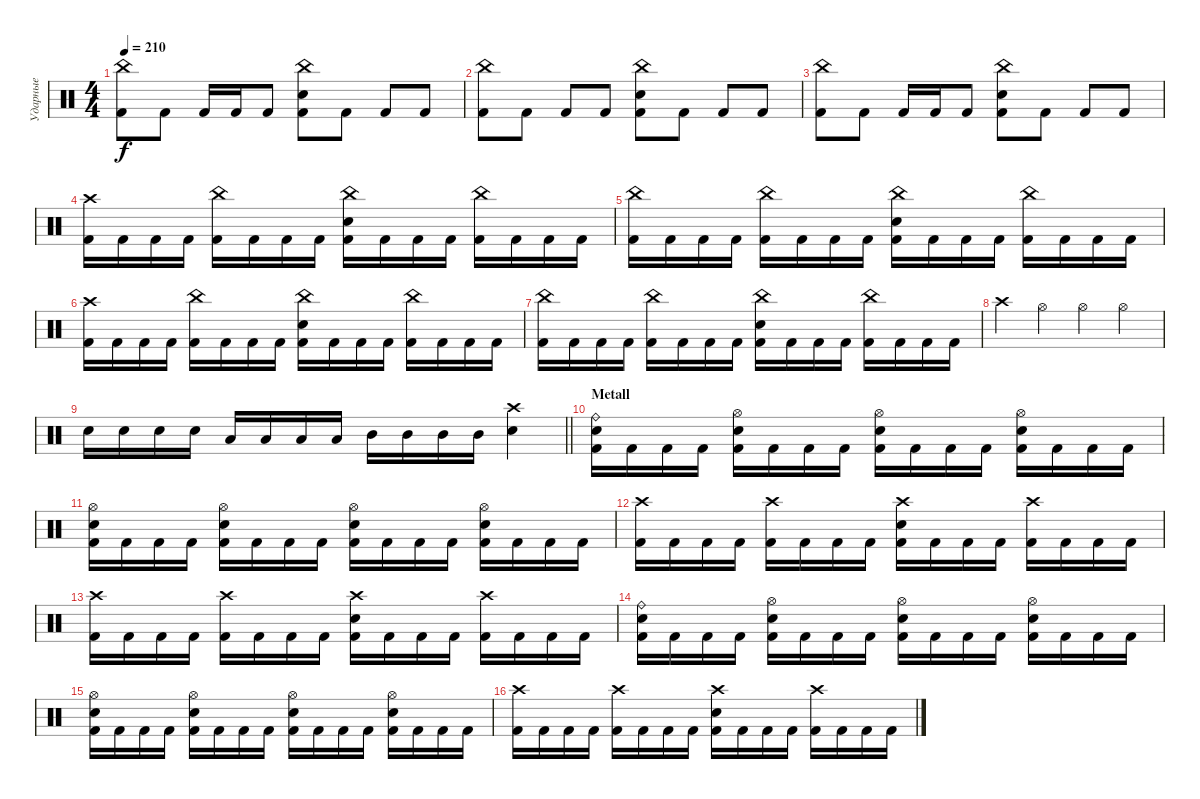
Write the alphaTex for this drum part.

\track ("Ударные" "Ударные") {instrument percussion}
\staff {score}
\articulation defaults
\ts (4 4)
\tempo 210
\clef neutral
\ks c
("China (hit)" "Kick (hit) 2").8{dy f} "Kick (hit) 2".8 "Kick (hit) 2".16 "Kick (hit) 2".16 "Kick (hit) 2".8 ("China (hit)" "Snare (hit) 2" "Kick (hit) 2").8 "Kick (hit) 2".8 "Kick (hit) 2".8 "Kick (hit) 2".8 |
("China (hit)" "Kick (hit) 2").8 "Kick (hit) 2".8 "Kick (hit) 2".8 "Kick (hit) 2".8 ("China (hit)" "Snare (hit) 2" "Kick (hit) 2").8 "Kick (hit) 2".8 "Kick (hit) 2".8 "Kick (hit) 2".8 |
("China (hit)" "Kick (hit) 2").8 "Kick (hit) 2".8 "Kick (hit) 2".16 "Kick (hit) 2".16 "Kick (hit) 2".8 ("China (hit)" "Snare (hit) 2" "Kick (hit) 2").8 "Kick (hit) 2".8 "Kick (hit) 2".8 "Kick (hit) 2".8 |
("Crash high (hit)" "Kick (hit) 2").16 "Kick (hit) 2".16 "Kick (hit) 2".16 "Kick (hit) 2".16 ("China (hit)" "Kick (hit) 2").16 "Kick (hit) 2".16 "Kick (hit) 2".16 "Kick (hit) 2".16 ("China (hit)" "Snare (hit) 2" "Kick (hit) 2").16 "Kick (hit) 2".16 "Kick (hit) 2".16 "Kick (hit) 2".16 ("China (hit)" "Kick (hit) 2").16 "Kick (hit) 2".16 "Kick (hit) 2".16 "Kick (hit) 2".16 |
("China (hit)" "Kick (hit) 2").16 "Kick (hit) 2".16 "Kick (hit) 2".16 "Kick (hit) 2".16 ("China (hit)" "Kick (hit) 2").16 "Kick (hit) 2".16 "Kick (hit) 2".16 "Kick (hit) 2".16 ("China (hit)" "Snare (hit) 2" "Kick (hit) 2").16 "Kick (hit) 2".16 "Kick (hit) 2".16 "Kick (hit) 2".16 ("China (hit)" "Kick (hit) 2").16 "Kick (hit) 2".16 "Kick (hit) 2".16 "Kick (hit) 2".16 |
("Crash high (hit)" "Kick (hit) 2").16 "Kick (hit) 2".16 "Kick (hit) 2".16 "Kick (hit) 2".16 ("China (hit)" "Kick (hit) 2").16 "Kick (hit) 2".16 "Kick (hit) 2".16 "Kick (hit) 2".16 ("China (hit)" "Snare (hit) 2" "Kick (hit) 2").16 "Kick (hit) 2".16 "Kick (hit) 2".16 "Kick (hit) 2".16 ("China (hit)" "Kick (hit) 2").16 "Kick (hit) 2".16 "Kick (hit) 2".16 "Kick (hit) 2".16 |
("China (hit)" "Kick (hit) 2").16 "Kick (hit) 2".16 "Kick (hit) 2".16 "Kick (hit) 2".16 ("China (hit)" "Kick (hit) 2").16 "Kick (hit) 2".16 "Kick (hit) 2".16 "Kick (hit) 2".16 ("China (hit)" "Snare (hit) 2" "Kick (hit) 2").16 "Kick (hit) 2".16 "Kick (hit) 2".16 "Kick (hit) 2".16 ("China (hit)" "Kick (hit) 2").16 "Kick (hit) 2".16 "Kick (hit) 2".16 "Kick (hit) 2".16 |
"Crash high (hit)".4 "Hi-Hat (open)".4 "Hi-Hat (open)".4 "Hi-Hat (open)".4 |
\barLineRight lightlight "Snare (hit) 2".16 "Snare (hit) 2".16 "Snare (hit) 2".16 "Snare (hit) 2".16 "Low Tom (hit)".16 "Low Tom (hit)".16 "Low Tom (hit)".16 "Low Tom (hit)".16 "Mid Tom (hit)".16 "Mid Tom (hit)".16 "Mid Tom (hit)".16 "Mid Tom (hit)".16
("Crash high (hit)" "Snare (hit) 2").4 |
\section ("" "Metall")
("Ride (bell)" "Snare (hit) 2" "Kick (hit) 2").16 "Kick (hit) 2".16 "Kick (hit) 2".16 "Kick (hit) 2".16 ("Hi-Hat (open)" "Snare (hit) 2" "Kick (hit) 2").16 "Kick (hit) 2".16 "Kick (hit) 2".16 "Kick (hit) 2".16 ("Hi-Hat (open)" "Snare (hit) 2" "Kick (hit) 2").16 "Kick (hit) 2".16 "Kick (hit) 2".16 "Kick (hit) 2".16 ("Hi-Hat (open)" "Snare (hit) 2" "Kick (hit) 2").16 "Kick (hit) 2".16 "Kick (hit) 2".16 "Kick (hit) 2".16 |
("Hi-Hat (open)" "Snare (hit) 2" "Kick (hit) 2").16 "Kick (hit) 2".16 "Kick (hit) 2".16 "Kick (hit) 2".16 ("Hi-Hat (open)" "Snare (hit) 2" "Kick (hit) 2").16 "Kick (hit) 2".16 "Kick (hit) 2".16 "Kick (hit) 2".16 ("Hi-Hat (open)" "Snare (hit) 2" "Kick (hit) 2").16 "Kick (hit) 2".16 "Kick (hit) 2".16 "Kick (hit) 2".16 ("Hi-Hat (open)" "Snare (hit) 2" "Kick (hit) 2").16 "Kick (hit) 2".16 "Kick (hit) 2".16 "Kick (hit) 2".16 |
("Crash high (hit)" "Kick (hit) 2").16 "Kick (hit) 2".16 "Kick (hit) 2".16 "Kick (hit) 2".16 ("Crash high (hit)" "Kick (hit) 2").16 "Kick (hit) 2".16 "Kick (hit) 2".16 "Kick (hit) 2".16 ("Crash high (hit)" "Snare (hit) 2" "Kick (hit) 2").16 "Kick (hit) 2".16 "Kick (hit) 2".16 "Kick (hit) 2".16 ("Crash high (hit)" "Kick (hit) 2").16 "Kick (hit) 2".16 "Kick (hit) 2".16 "Kick (hit) 2".16 |
("Crash high (hit)" "Kick (hit) 2").16 "Kick (hit) 2".16 "Kick (hit) 2".16 "Kick (hit) 2".16 ("Crash high (hit)" "Kick (hit) 2").16 "Kick (hit) 2".16 "Kick (hit) 2".16 "Kick (hit) 2".16 ("Crash high (hit)" "Snare (hit) 2" "Kick (hit) 2").16 "Kick (hit) 2".16 "Kick (hit) 2".16 "Kick (hit) 2".16 ("Crash high (hit)" "Kick (hit) 2").16 "Kick (hit) 2".16 "Kick (hit) 2".16 "Kick (hit) 2".16 |
("Ride (bell)" "Snare (hit) 2" "Kick (hit) 2").16 "Kick (hit) 2".16 "Kick (hit) 2".16 "Kick (hit) 2".16 ("Hi-Hat (open)" "Snare (hit) 2" "Kick (hit) 2").16 "Kick (hit) 2".16 "Kick (hit) 2".16 "Kick (hit) 2".16 ("Hi-Hat (open)" "Snare (hit) 2" "Kick (hit) 2").16 "Kick (hit) 2".16 "Kick (hit) 2".16 "Kick (hit) 2".16 ("Hi-Hat (open)" "Snare (hit) 2" "Kick (hit) 2").16 "Kick (hit) 2".16 "Kick (hit) 2".16 "Kick (hit) 2".16 |
("Hi-Hat (open)" "Snare (hit) 2" "Kick (hit) 2").16 "Kick (hit) 2".16 "Kick (hit) 2".16 "Kick (hit) 2".16 ("Hi-Hat (open)" "Snare (hit) 2" "Kick (hit) 2").16 "Kick (hit) 2".16 "Kick (hit) 2".16 "Kick (hit) 2".16 ("Hi-Hat (open)" "Snare (hit) 2" "Kick (hit) 2").16 "Kick (hit) 2".16 "Kick (hit) 2".16 "Kick (hit) 2".16 ("Hi-Hat (open)" "Snare (hit) 2" "Kick (hit) 2").16 "Kick (hit) 2".16 "Kick (hit) 2".16 "Kick (hit) 2".16 |
("Crash high (hit)" "Kick (hit) 2").16 "Kick (hit) 2".16 "Kick (hit) 2".16 "Kick (hit) 2".16 ("Crash high (hit)" "Kick (hit) 2").16 "Kick (hit) 2".16 "Kick (hit) 2".16 "Kick (hit) 2".16 ("Crash high (hit)" "Snare (hit) 2" "Kick (hit) 2").16 "Kick (hit) 2".16 "Kick (hit) 2".16 "Kick (hit) 2".16 ("Crash high (hit)" "Kick (hit) 2").16 "Kick (hit) 2".16 "Kick (hit) 2".16 "Kick (hit) 2".16
